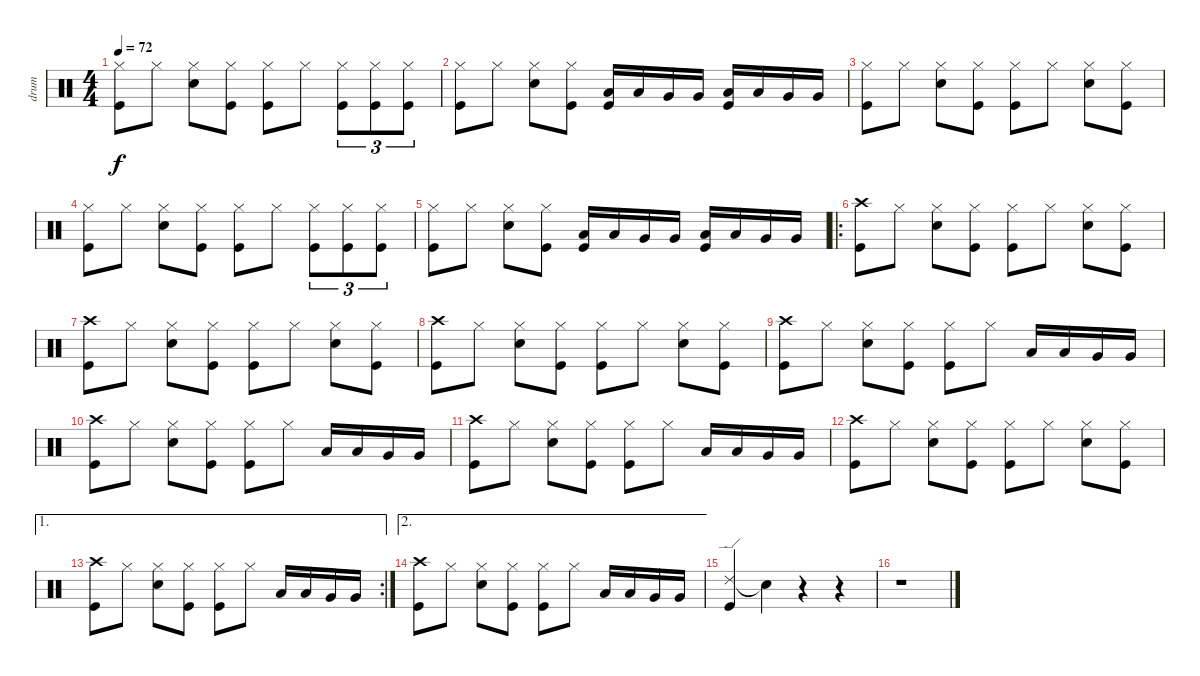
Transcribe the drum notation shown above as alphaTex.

\track ("drum" "drum") {instrument percussion}
\staff {score}
\articulation defaults
\ts (4 4)
\tempo 72
\clef neutral
\ks c
("Hi-Hat (closed)" "Kick (hit)").8{dy f} "Hi-Hat (closed)".8 ("Hi-Hat (closed)" "Snare (hit) 2").8 ("Hi-Hat (closed)" "Kick (hit)").8 ("Hi-Hat (closed)" "Kick (hit)").8 "Hi-Hat (closed)".8 ("Hi-Hat (closed)" "Kick (hit)").8{tu (3 2)} ("Hi-Hat (closed)" "Kick (hit)").8{tu (3 2)} ("Hi-Hat (closed)" "Kick (hit)").8{tu (3 2)} |
("Hi-Hat (closed)" "Kick (hit)").8 "Hi-Hat (closed)".8 ("Hi-Hat (closed)" "Snare (hit) 2").8 ("Hi-Hat (closed)" "Kick (hit)").8 ("Low Tom (hit)" "Kick (hit)").16 "Low Tom (hit)".16 "Very Low Tom (hit)".16 "Very Low Tom (hit)".16 ("Low Tom (hit)" "Kick (hit)").16 "Low Tom (hit)".16 "Very Low Tom (hit)".16 "Very Low Tom (hit)".16 |
("Hi-Hat (closed)" "Kick (hit)").8 "Hi-Hat (closed)".8 ("Hi-Hat (closed)" "Snare (hit) 2").8 ("Hi-Hat (closed)" "Kick (hit)").8 ("Hi-Hat (closed)" "Kick (hit)").8 "Hi-Hat (closed)".8 ("Hi-Hat (closed)" "Snare (hit) 2").8 ("Hi-Hat (closed)" "Kick (hit)").8 |
("Hi-Hat (closed)" "Kick (hit)").8 "Hi-Hat (closed)".8 ("Hi-Hat (closed)" "Snare (hit) 2").8 ("Hi-Hat (closed)" "Kick (hit)").8 ("Hi-Hat (closed)" "Kick (hit)").8 "Hi-Hat (closed)".8 ("Hi-Hat (closed)" "Kick (hit)").8{tu (3 2)} ("Hi-Hat (closed)" "Kick (hit)").8{tu (3 2)} ("Hi-Hat (closed)" "Kick (hit)").8{tu (3 2)} |
("Hi-Hat (closed)" "Kick (hit)").8 "Hi-Hat (closed)".8 ("Hi-Hat (closed)" "Snare (hit) 2").8 ("Hi-Hat (closed)" "Kick (hit)").8 ("Low Tom (hit)" "Kick (hit)").16 "Low Tom (hit)".16 "Very Low Tom (hit)".16 "Very Low Tom (hit)".16 ("Low Tom (hit)" "Kick (hit)").16 "Low Tom (hit)".16 "Very Low Tom (hit)".16 "Very Low Tom (hit)".16 |
\ro
("Crash high (hit)" "Kick (hit)").8 "Hi-Hat (closed)".8 ("Hi-Hat (closed)" "Snare (hit) 2").8 ("Hi-Hat (closed)" "Kick (hit)").8 ("Hi-Hat (closed)" "Kick (hit)").8 "Hi-Hat (closed)".8 ("Hi-Hat (closed)" "Snare (hit) 2").8 ("Hi-Hat (closed)" "Kick (hit)").8 |
("Crash high (hit)" "Kick (hit)").8 "Hi-Hat (closed)".8 ("Hi-Hat (closed)" "Snare (hit) 2").8 ("Hi-Hat (closed)" "Kick (hit)").8 ("Hi-Hat (closed)" "Kick (hit)").8 "Hi-Hat (closed)".8 ("Hi-Hat (closed)" "Snare (hit) 2").8 ("Hi-Hat (closed)" "Kick (hit)").8 |
("Crash high (hit)" "Kick (hit)").8 "Hi-Hat (closed)".8 ("Hi-Hat (closed)" "Snare (hit) 2").8 ("Hi-Hat (closed)" "Kick (hit)").8 ("Hi-Hat (closed)" "Kick (hit)").8 "Hi-Hat (closed)".8 ("Hi-Hat (closed)" "Snare (hit) 2").8 ("Hi-Hat (closed)" "Kick (hit)").8 |
("Crash high (hit)" "Kick (hit)").8 "Hi-Hat (closed)".8 ("Hi-Hat (closed)" "Snare (hit) 2").8 ("Hi-Hat (closed)" "Kick (hit)").8 ("Hi-Hat (closed)" "Kick (hit)").8 "Hi-Hat (closed)".8 "Low Tom (hit)".16 "Low Tom (hit)".16 "Very Low Tom (hit)".16 "Very Low Tom (hit)".16 |
("Crash high (hit)" "Kick (hit)").8 "Hi-Hat (closed)".8 ("Hi-Hat (closed)" "Snare (hit) 2").8 ("Hi-Hat (closed)" "Kick (hit)").8 ("Hi-Hat (closed)" "Kick (hit)").8 "Hi-Hat (closed)".8 "Low Tom (hit)".16 "Low Tom (hit)".16 "Very Low Tom (hit)".16 "Very Low Tom (hit)".16 |
("Crash high (hit)" "Kick (hit)").8 "Hi-Hat (closed)".8 ("Hi-Hat (closed)" "Snare (hit) 2").8 ("Hi-Hat (closed)" "Kick (hit)").8 ("Hi-Hat (closed)" "Kick (hit)").8 "Hi-Hat (closed)".8 "Low Tom (hit)".16 "Low Tom (hit)".16 "Very Low Tom (hit)".16 "Very Low Tom (hit)".16 |
("Crash high (hit)" "Kick (hit)").8 "Hi-Hat (closed)".8 ("Hi-Hat (closed)" "Snare (hit) 2").8 ("Hi-Hat (closed)" "Kick (hit)").8 ("Hi-Hat (closed)" "Kick (hit)").8 "Hi-Hat (closed)".8 ("Hi-Hat (closed)" "Snare (hit) 2").8 ("Hi-Hat (closed)" "Kick (hit)").8 |
\ae 1
\rc 2
("Crash high (hit)" "Kick (hit)").8 "Hi-Hat (closed)".8 ("Hi-Hat (closed)" "Snare (hit) 2").8 ("Hi-Hat (closed)" "Kick (hit)").8 ("Hi-Hat (closed)" "Kick (hit)").8 "Hi-Hat (closed)".8 "Low Tom (hit)".16 "Low Tom (hit)".16 "Very Low Tom (hit)".16 "Very Low Tom (hit)".16 |
\ae 2
("Crash high (hit)" "Kick (hit)").8 "Hi-Hat (closed)".8 ("Hi-Hat (closed)" "Snare (hit) 2").8 ("Hi-Hat (closed)" "Kick (hit)").8 ("Hi-Hat (closed)" "Kick (hit)").8 "Hi-Hat (closed)".8 "Low Tom (hit)".16 "Low Tom (hit)".16 "Very Low Tom (hit)".16 "Very Low Tom (hit)".16 |
("Ride (edge) 2" "Kick (hit)").4 "Snare (hit)"{t}.4 r.4 r.4 |
r.1
